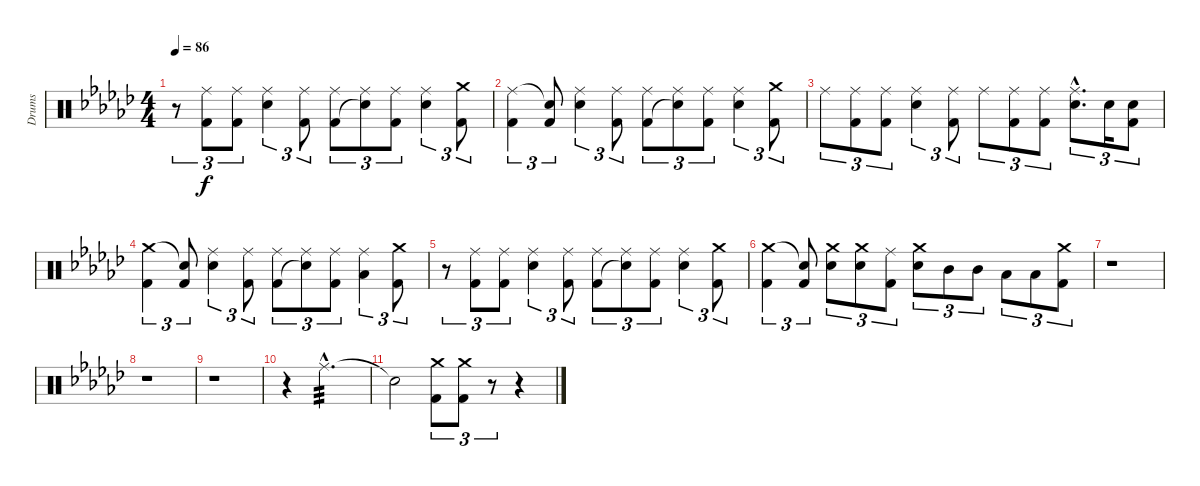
\track ("Drums" "Drums") {instrument percussion}
\staff {score}
\articulation defaults
\ts (4 4)
\tempo 86
\clef neutral
\ks ebminor
r.8{tu (3 2) dy f} ("Ride (middle)" "Kick (hit) 2").8{tu (3 2)} ("Ride (middle)" "Kick (hit) 2").8{tu (3 2)} ("Ride (middle)" "Electric Snare (hit)").4{tu (3 2)} ("Ride (middle)" "Kick (hit) 2").8{tu (3 2)} ("Ride (middle)" "Kick (hit) 2").8{tu (3 2)} ("Ride (middle)" "Snare (hit)"{t}).8{tu (3 2)} ("Ride (middle)" "Kick (hit) 2").8{tu (3 2)} ("Ride (middle)" "Electric Snare (hit)").4{tu (3 2)} ("Crash medium (hit)" "Kick (hit) 2").8{tu (3 2)} |
("Ride (middle)" "Kick (hit) 2").4{tu (3 2)} ("Snare (hit)"{t} "Kick (hit) 2").8{tu (3 2)} ("Ride (middle)" "Electric Snare (hit)").4{tu (3 2)} ("Ride (middle)" "Kick (hit) 2").8{tu (3 2)} ("Ride (middle)" "Kick (hit) 2").8{tu (3 2)} ("Ride (middle)" "Snare (hit)"{t}).8{tu (3 2)} ("Ride (middle)" "Kick (hit) 2").8{tu (3 2)} ("Ride (middle)" "Electric Snare (hit)").4{tu (3 2)} ("Crash medium (hit)" "Kick (hit) 2").8{tu (3 2)} |
"Ride (middle)".8{tu (3 2)} ("Ride (middle)" "Kick (hit) 2").8{tu (3 2)} ("Ride (middle)" "Kick (hit) 2").8{tu (3 2)} ("Ride (middle)" "Electric Snare (hit)").4{tu (3 2)} ("Ride (middle)" "Kick (hit) 2").8{tu (3 2)} "Ride (middle)".8{tu (3 2)} ("Ride (middle)" "Kick (hit) 2").8{tu (3 2)} ("Ride (middle)" "Kick (hit) 2").8{tu (3 2)} ("Ride (middle)"{hac} "Electric Snare (hit)"{hac}).8{d tu (3 2)} "Electric Snare (hit)".16{tu (3 2)} ("Electric Snare (hit)" "Kick (hit) 2").8{tu (3 2)} |
("Crash medium (hit)" "Kick (hit) 2").4{tu (3 2)} ("Snare (hit)"{t} "Kick (hit) 2").8{tu (3 2)} ("Ride (middle)" "Electric Snare (hit)").4{tu (3 2)} ("Ride (middle)" "Kick (hit) 2").8{tu (3 2)} ("Ride (middle)" "Kick (hit) 2").8{tu (3 2)} ("Ride (middle)" "Snare (hit)"{t}).8{tu (3 2)} ("Ride (middle)" "Kick (hit) 2").8{tu (3 2)} ("Ride (middle)" "Low Floor Tom (hit)").4{tu (3 2)} ("Crash medium (hit)" "Kick (hit) 2").8{tu (3 2)} |
r.8{tu (3 2)} ("Ride (middle)" "Kick (hit) 2").8{tu (3 2)} ("Ride (middle)" "Kick (hit) 2").8{tu (3 2)} ("Ride (middle)" "Electric Snare (hit)").4{tu (3 2)} ("Ride (middle)" "Kick (hit) 2").8{tu (3 2)} ("Ride (middle)" "Kick (hit) 2").8{tu (3 2)} ("Ride (middle)" "Snare (hit)"{t}).8{tu (3 2)} ("Ride (middle)" "Kick (hit) 2").8{tu (3 2)} ("Ride (middle)" "Electric Snare (hit)").4{tu (3 2)} ("Crash medium (hit)" "Kick (hit) 2").8{tu (3 2)} |
("Crash medium (hit)" "Kick (hit) 2").4{tu (3 2)} ("Snare (hit)"{t} "Kick (hit) 2").8{tu (3 2)} ("Crash medium (hit)" "Electric Snare (hit)").8{tu (3 2)} ("Crash medium (hit)" "Electric Snare (hit)").8{tu (3 2)} ("Ride (middle)" "Kick (hit) 2").8{tu (3 2)} ("Crash medium (hit)" "Electric Snare (hit)").8{tu (3 2)} "Mid Tom (hit)".8{tu (3 2)} "Mid Tom (hit)".8{tu (3 2)} "Low Floor Tom (hit)".8{tu (3 2)} "Low Floor Tom (hit)".8{tu (3 2)} ("Crash medium (hit)" "Kick (hit) 2").8{tu (3 2)} |
r.1 |
r.1 |
r.1 |
r.4 "Ride (middle)"{hac}.2{d tp 3} |
"Snare (hit)"{t}.2 ("Crash medium (hit)" "Kick (hit) 2").8{tu (3 2)} ("Crash medium (hit)" "Kick (hit) 2").8{tu (3 2)} r.8{tu (3 2)} r.4
